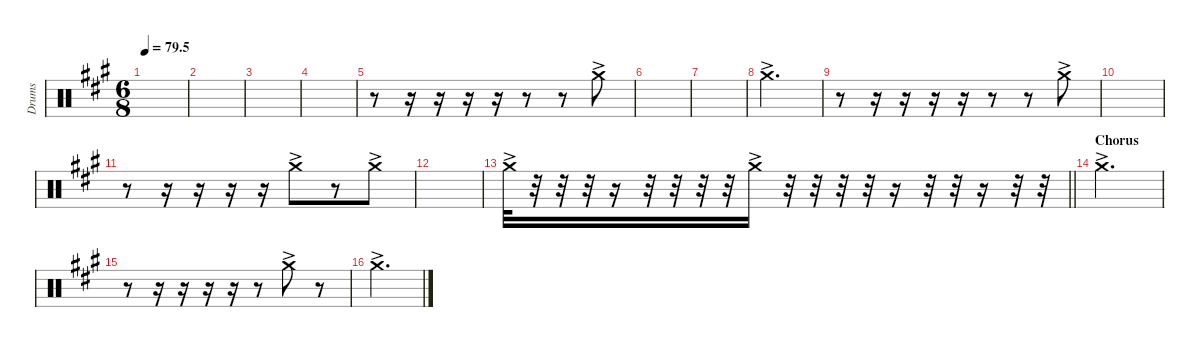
\defaultSystemsLayout 4
\hideDynamics
\bracketExtendMode nobrackets
\otherSystemsTrackNameOrientation horizontal
\track ("Right crash" "Drums") {instrument percussion}
\staff {score}
\articulation defaults
\ts (6 8)
\tempo
79.5
\accidentals auto
\clef neutral
\ottava regular
\simile none
\scale
0.333333
\ks a
|
\scale
0.333333 |
\scale
0.333333 |
\scale
0.333333 |
\scale
0.333333 r.8 r.16 r.16 r.16 r.16 r.8 r.8 "Crash medium (hit)"{ac acc forcenatural}.8 |
\scale
0.333333 |
\scale
0.333333 |
\scale
0.333333 "Crash medium (hit)"{ac acc forcenatural}.2{d} |
\scale
0.333333 r.8 r.16 r.16 r.16 r.16 r.8 r.8 "Crash medium (hit)"{ac acc forcenatural}.8 |
\scale
0.333333 |
\scale
0.333333 r.8 r.16 r.16 r.16 r.16 "Crash medium (hit)"{ac acc forcenatural}.8 r.8 "Crash medium (hit)"{ac acc forcenatural}.8 |
\scale
0.333333 |
\scale
0.333333
\barLineRight lightlight "Crash medium (hit)"{ac acc forcenatural}.32
r.32 r.32 r.32 r.16 r.32 r.32 r.32 r.32 "Crash medium (hit)"{ac acc forcenatural}.16 r.32 r.32 r.32 r.32 r.16 r.32 r.32 r.16 r.32 r.32 |
\section ("" "Chorus")
\scale
0.333333 "Crash medium (hit)"{ac acc forcenatural}.2{d} |
\scale
0.333333 r.8 r.16 r.16 r.16 r.16 r.8 "Crash medium (hit)"{ac acc forcenatural}.8 r.8 |
\scale
0.333333 "Crash medium (hit)"{ac acc forcenatural}.2{d}
